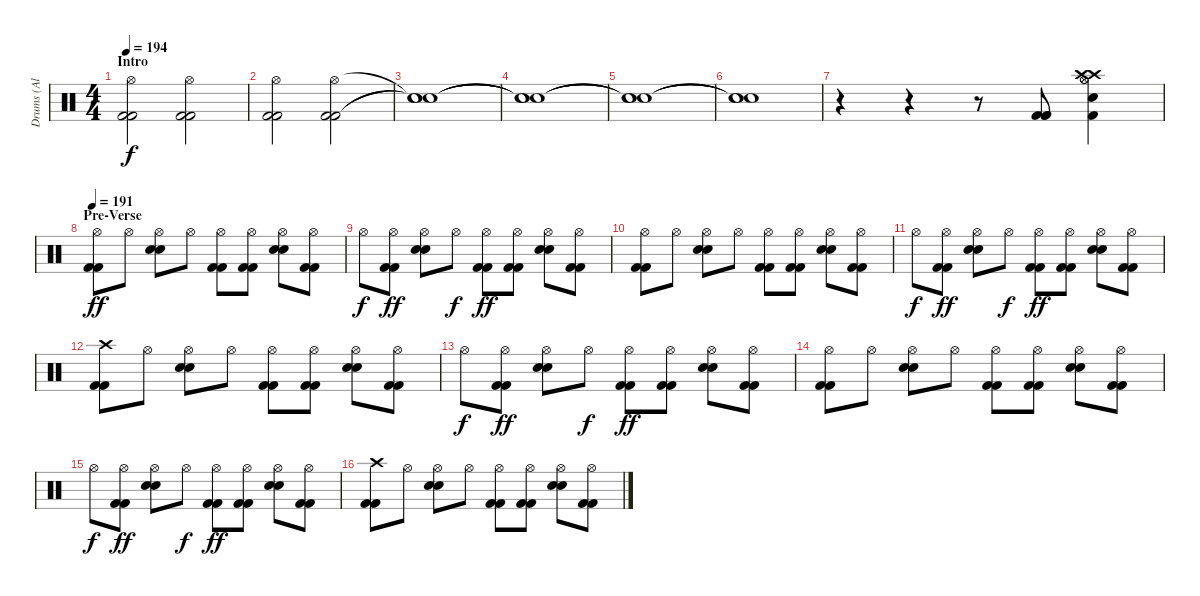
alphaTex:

\track ("Drums (Al Sobrante)" "Drums (Al ") {instrument percussion}
\staff {score}
\articulation defaults
\ts (4 4)
\section ("" "Intro")
\tempo 194
\clef neutral
\ks c
("Hi-Hat (open)" "Kick (hit) 2" "Kick (hit) 2").2{dy f} ("Hi-Hat (open)" "Kick (hit) 2" "Kick (hit) 2").2 |
("Hi-Hat (open)" "Kick (hit) 2" "Kick (hit) 2").2 ("Hi-Hat (open)" "Kick (hit) 2" "Kick (hit) 2").2 |
("Snare (hit)"{t} "Snare (hit)"{t} "Snare (hit)"{t}).1 |
("Snare (hit)"{t} "Snare (hit)"{t} "Snare (hit)"{t}).1 |
("Snare (hit)"{t} "Snare (hit)"{t} "Snare (hit)"{t}).1 |
("Snare (hit)"{t} "Snare (hit)"{t} "Snare (hit)"{t}).1 |
r.4 r.4 r.8 ("Kick (hit) 2" "Kick (hit) 2" "Kick (hit) 2").8 ("Hi-Hat (open)" "Kick (hit) 2" "Electric Snare (hit)" "Hi-Hat (open)" "Crash high (hit)" "Crash high (hit)").4 |
\section ("" "Pre-Verse")
\tempo 191
("Kick (hit) 2" "Kick (hit) 2" "Hi-Hat (open)").8{dy ff} "Hi-Hat (open)".8 ("Electric Snare (hit)" "Electric Snare (hit)" "Hi-Hat (open)").8 "Hi-Hat (open)".8 ("Kick (hit) 2" "Kick (hit) 2" "Hi-Hat (open)").8 ("Kick (hit) 2" "Kick (hit) 2" "Hi-Hat (open)").8 ("Electric Snare (hit)" "Electric Snare (hit)" "Hi-Hat (open)").8 ("Kick (hit) 2" "Kick (hit) 2" "Hi-Hat (open)").8 |
"Hi-Hat (open)".8{dy f} ("Kick (hit) 2" "Kick (hit) 2" "Hi-Hat (open)").8{dy ff} ("Electric Snare (hit)" "Electric Snare (hit)" "Hi-Hat (open)").8 "Hi-Hat (open)".8{dy f} ("Kick (hit) 2" "Kick (hit) 2" "Hi-Hat (open)").8{dy ff} ("Kick (hit) 2" "Kick (hit) 2" "Hi-Hat (open)").8 ("Electric Snare (hit)" "Electric Snare (hit)" "Hi-Hat (open)").8 ("Kick (hit) 2" "Kick (hit) 2" "Hi-Hat (open)").8 |
("Kick (hit) 2" "Kick (hit) 2" "Hi-Hat (open)").8 "Hi-Hat (open)".8 ("Electric Snare (hit)" "Electric Snare (hit)" "Hi-Hat (open)").8 "Hi-Hat (open)".8 ("Kick (hit) 2" "Kick (hit) 2" "Hi-Hat (open)").8 ("Kick (hit) 2" "Kick (hit) 2" "Hi-Hat (open)").8 ("Electric Snare (hit)" "Electric Snare (hit)" "Hi-Hat (open)").8 ("Kick (hit) 2" "Kick (hit) 2" "Hi-Hat (open)").8 |
"Hi-Hat (open)".8{dy f} ("Kick (hit) 2" "Kick (hit) 2" "Hi-Hat (open)").8{dy ff} ("Electric Snare (hit)" "Electric Snare (hit)" "Hi-Hat (open)").8 "Hi-Hat (open)".8{dy f} ("Kick (hit) 2" "Kick (hit) 2" "Hi-Hat (open)").8{dy ff} ("Kick (hit) 2" "Kick (hit) 2" "Hi-Hat (open)").8 ("Electric Snare (hit)" "Electric Snare (hit)" "Hi-Hat (open)").8 ("Kick (hit) 2" "Kick (hit) 2" "Hi-Hat (open)").8 |
("Kick (hit) 2" "Kick (hit) 2" "Crash high (hit)").8 "Hi-Hat (open)".8 ("Electric Snare (hit)" "Electric Snare (hit)" "Hi-Hat (open)").8 "Hi-Hat (open)".8 ("Kick (hit) 2" "Kick (hit) 2" "Hi-Hat (open)").8 ("Kick (hit) 2" "Kick (hit) 2" "Hi-Hat (open)").8 ("Electric Snare (hit)" "Electric Snare (hit)" "Hi-Hat (open)").8 ("Kick (hit) 2" "Kick (hit) 2" "Hi-Hat (open)").8 |
"Hi-Hat (open)".8{dy f} ("Kick (hit) 2" "Kick (hit) 2" "Hi-Hat (open)").8{dy ff} ("Electric Snare (hit)" "Electric Snare (hit)" "Hi-Hat (open)").8 "Hi-Hat (open)".8{dy f} ("Kick (hit) 2" "Kick (hit) 2" "Hi-Hat (open)").8{dy ff} ("Kick (hit) 2" "Kick (hit) 2" "Hi-Hat (open)").8 ("Electric Snare (hit)" "Electric Snare (hit)" "Hi-Hat (open)").8 ("Kick (hit) 2" "Kick (hit) 2" "Hi-Hat (open)").8 |
("Kick (hit) 2" "Kick (hit) 2" "Hi-Hat (open)").8 "Hi-Hat (open)".8 ("Electric Snare (hit)" "Electric Snare (hit)" "Hi-Hat (open)").8 "Hi-Hat (open)".8 ("Kick (hit) 2" "Kick (hit) 2" "Hi-Hat (open)").8 ("Kick (hit) 2" "Kick (hit) 2" "Hi-Hat (open)").8 ("Electric Snare (hit)" "Electric Snare (hit)" "Hi-Hat (open)").8 ("Kick (hit) 2" "Kick (hit) 2" "Hi-Hat (open)").8 |
"Hi-Hat (open)".8{dy f} ("Kick (hit) 2" "Kick (hit) 2" "Hi-Hat (open)").8{dy ff} ("Electric Snare (hit)" "Electric Snare (hit)" "Hi-Hat (open)").8 "Hi-Hat (open)".8{dy f} ("Kick (hit) 2" "Kick (hit) 2" "Hi-Hat (open)").8{dy ff} ("Kick (hit) 2" "Kick (hit) 2" "Hi-Hat (open)").8 ("Electric Snare (hit)" "Electric Snare (hit)" "Hi-Hat (open)").8 ("Kick (hit) 2" "Kick (hit) 2" "Hi-Hat (open)").8 |
("Kick (hit) 2" "Kick (hit) 2" "Crash high (hit)").8 "Hi-Hat (open)".8 ("Electric Snare (hit)" "Electric Snare (hit)" "Hi-Hat (open)").8 "Hi-Hat (open)".8 ("Kick (hit) 2" "Kick (hit) 2" "Hi-Hat (open)").8 ("Kick (hit) 2" "Kick (hit) 2" "Hi-Hat (open)").8 ("Electric Snare (hit)" "Electric Snare (hit)" "Hi-Hat (open)").8 ("Kick (hit) 2" "Kick (hit) 2" "Hi-Hat (open)").8
